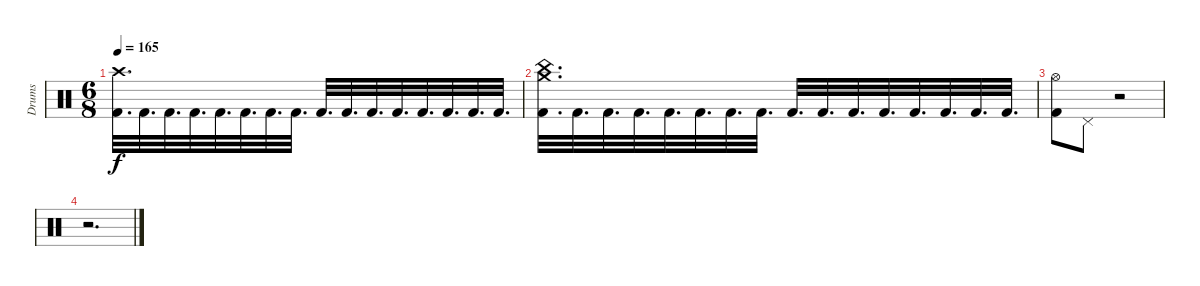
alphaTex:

\track ("Drums" "Drums") {instrument percussion}
\staff {score}
\articulation defaults
\ts (6 8)
\tempo 165
\clef neutral
\ks c
("Crash high (hit)" "Kick (hit) 2").32{d dy f} "Kick (hit) 2".32{d} "Kick (hit) 2".32{d} "Kick (hit) 2".32{d} "Kick (hit) 2".32{d} "Kick (hit) 2".32{d} "Kick (hit) 2".32{d} "Kick (hit) 2".32{d} "Kick (hit) 2".32{d} "Kick (hit) 2".32{d} "Kick (hit) 2".32{d} "Kick (hit) 2".32{d} "Kick (hit) 2".32{d} "Kick (hit) 2".32{d} "Kick (hit) 2".32{d} "Kick (hit) 2".32{d} |
("China (hit)" "Crash medium (hit)" "Kick (hit) 2").32{d} "Kick (hit) 2".32{d} "Kick (hit) 2".32{d} "Kick (hit) 2".32{d} "Kick (hit) 2".32{d} "Kick (hit) 2".32{d} "Kick (hit) 2".32{d} "Kick (hit) 2".32{d} "Kick (hit) 2".32{d} "Kick (hit) 2".32{d} "Kick (hit) 2".32{d} "Kick (hit) 2".32{d} "Kick (hit) 2".32{d} "Kick (hit) 2".32{d} "Kick (hit) 2".32{d} "Kick (hit) 2".32{d} |
("Hi-Hat (open)" "Kick (hit) 2").8 "Pedal Hi-Hat (hit)".8 r.2 |
r.2{d}
